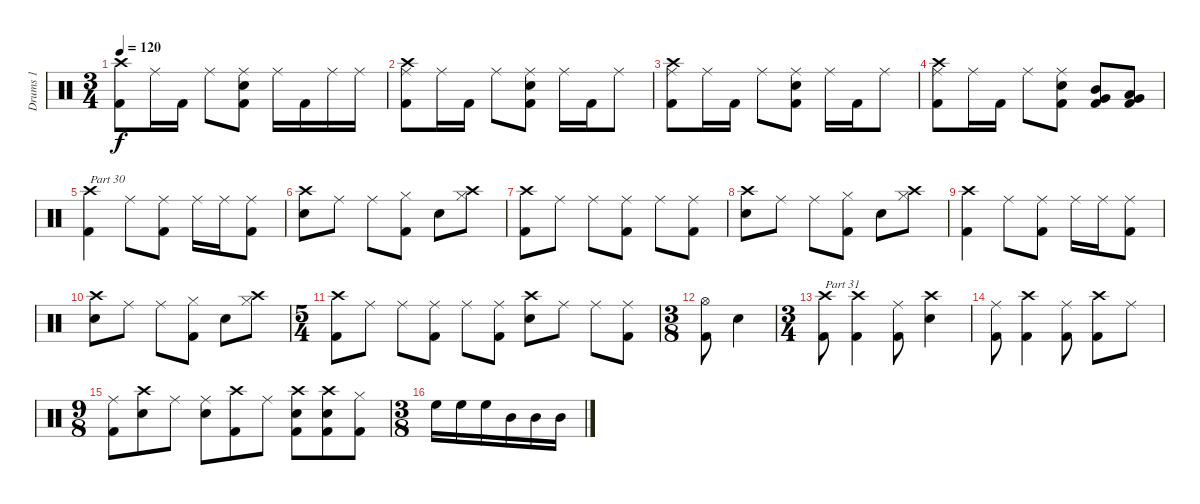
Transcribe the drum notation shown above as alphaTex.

\track ("Drums 1" "Drums 1") {instrument percussion}
\staff {score}
\articulation defaults
\ts (3 4)
\tempo 120
\clef neutral
\ks c
("Crash high (hit)" "Kick (hit) 2").8{dy f} "Ride (middle)".16 "Kick (hit) 2".16 "Ride (middle)".8 ("Ride (middle)" "Snare (hit) 2" "Kick (hit) 2").8 "Ride (middle)".16 "Kick (hit) 2".16 "Ride (middle)".16 "Ride (middle)".16 |
("Crash high (hit)" "Ride (middle)" "Kick (hit) 2").8 "Ride (middle)".16 "Kick (hit) 2".16 "Ride (middle)".8 ("Ride (middle)" "Snare (hit) 2" "Kick (hit) 2").8 "Ride (middle)".16 "Kick (hit) 2".16 "Ride (middle)".8 |
("Crash high (hit)" "Ride (middle)" "Kick (hit) 2").8 "Ride (middle)".16 "Kick (hit) 2".16 "Ride (middle)".8 ("Ride (middle)" "Snare (hit) 2" "Kick (hit) 2").8 "Ride (middle)".16 "Kick (hit) 2".16 "Ride (middle)".8 |
("Crash high (hit)" "Ride (middle)" "Kick (hit) 2").8 "Ride (middle)".16 "Kick (hit) 2".16 "Ride (middle)".8 ("Ride (middle)" "Snare (hit) 2" "Kick (hit) 2").8 ("Mid Tom (hit)" "Very Low Tom (hit)" "Kick (hit) 2").8 ("Very Low Tom (hit)" "Low Floor Tom (hit)" "Kick (hit) 2").8 |
("Crash high (hit)" "Kick (hit) 2").4{txt "Part 30"} "Ride (middle)".8 ("Ride (middle)" "Kick (hit) 2").8 "Ride (middle)".16 "Ride (middle)".16 ("Ride (middle)" "Kick (hit) 2").8 |
("Crash high (hit)" "Snare (hit) 2").8 "Ride (middle)".8 "Ride (middle)".8 ("Hi-Hat (closed)" "Kick (hit) 2").8 "Snare (hit) 2".8 ("Crash high (hit)" "Hi-Hat (closed)").8 |
("Crash high (hit)" "Kick (hit) 2").8 "Ride (middle)".8 "Ride (middle)".8 ("Ride (middle)" "Kick (hit) 2").8 "Ride (middle)".8 ("Ride (middle)" "Kick (hit) 2").8 |
("Crash high (hit)" "Snare (hit) 2").8 "Ride (middle)".8 "Ride (middle)".8 ("Hi-Hat (closed)" "Kick (hit) 2").8 "Snare (hit) 2".8 ("Crash high (hit)" "Hi-Hat (closed)").8 |
("Crash high (hit)" "Kick (hit) 2").4 "Ride (middle)".8 ("Ride (middle)" "Kick (hit) 2").8 "Ride (middle)".16 "Ride (middle)".16 ("Ride (middle)" "Kick (hit) 2").8 |
("Crash high (hit)" "Snare (hit) 2").8 "Ride (middle)".8 "Ride (middle)".8 ("Hi-Hat (closed)" "Kick (hit) 2").8 "Snare (hit) 2".8 ("Crash high (hit)" "Hi-Hat (closed)").8 |
\ts (5 4)
("Crash high (hit)" "Kick (hit) 2").8 "Ride (middle)".8 "Ride (middle)".8 ("Ride (middle)" "Kick (hit) 2").8 "Ride (middle)".8 ("Ride (middle)" "Kick (hit) 2").8 ("Crash high (hit)" "Snare (hit) 2").8 "Ride (middle)".8 "Ride (middle)".8 ("Ride (middle)" "Kick (hit) 2").8 |
\ts (3 8)
("Hi-Hat (open)" "Kick (hit) 2").8 "Snare (hit) 2".4 |
\ts (3 4)
("Crash high (hit)" "Kick (hit) 2").8{txt "Part 31"} ("Crash high (hit)" "Kick (hit) 2").4 ("Ride (middle)" "Kick (hit) 2").8 ("Crash high (hit)" "Snare (hit) 2").4 |
("Ride (middle)" "Kick (hit) 2").8 ("Crash high (hit)" "Kick (hit) 2").4 ("Ride (middle)" "Kick (hit) 2").8 ("Crash high (hit)" "Kick (hit) 2").8 "Ride (middle)".8 |
\ts (9 8)
("Ride (middle)" "Kick (hit) 2").8 ("Crash high (hit)" "Snare (hit) 2").8 "Ride (middle)".8 ("Ride (middle)" "Snare (hit) 2").8 ("Crash high (hit)" "Kick (hit) 2").8 "Ride (middle)".8 ("Crash high (hit)" "Snare (hit) 2" "Kick (hit) 2").8 ("Crash high (hit)" "Snare (hit) 2" "Kick (hit) 2").8 ("Hi-Hat (closed)" "Kick (hit) 2").8 |
\ts (3 8)
"High Floor Tom (hit)".16 "High Floor Tom (hit)".16 "High Floor Tom (hit)".16 "Mid Tom (hit)".16 "Mid Tom (hit)".16 "Mid Tom (hit)".16
